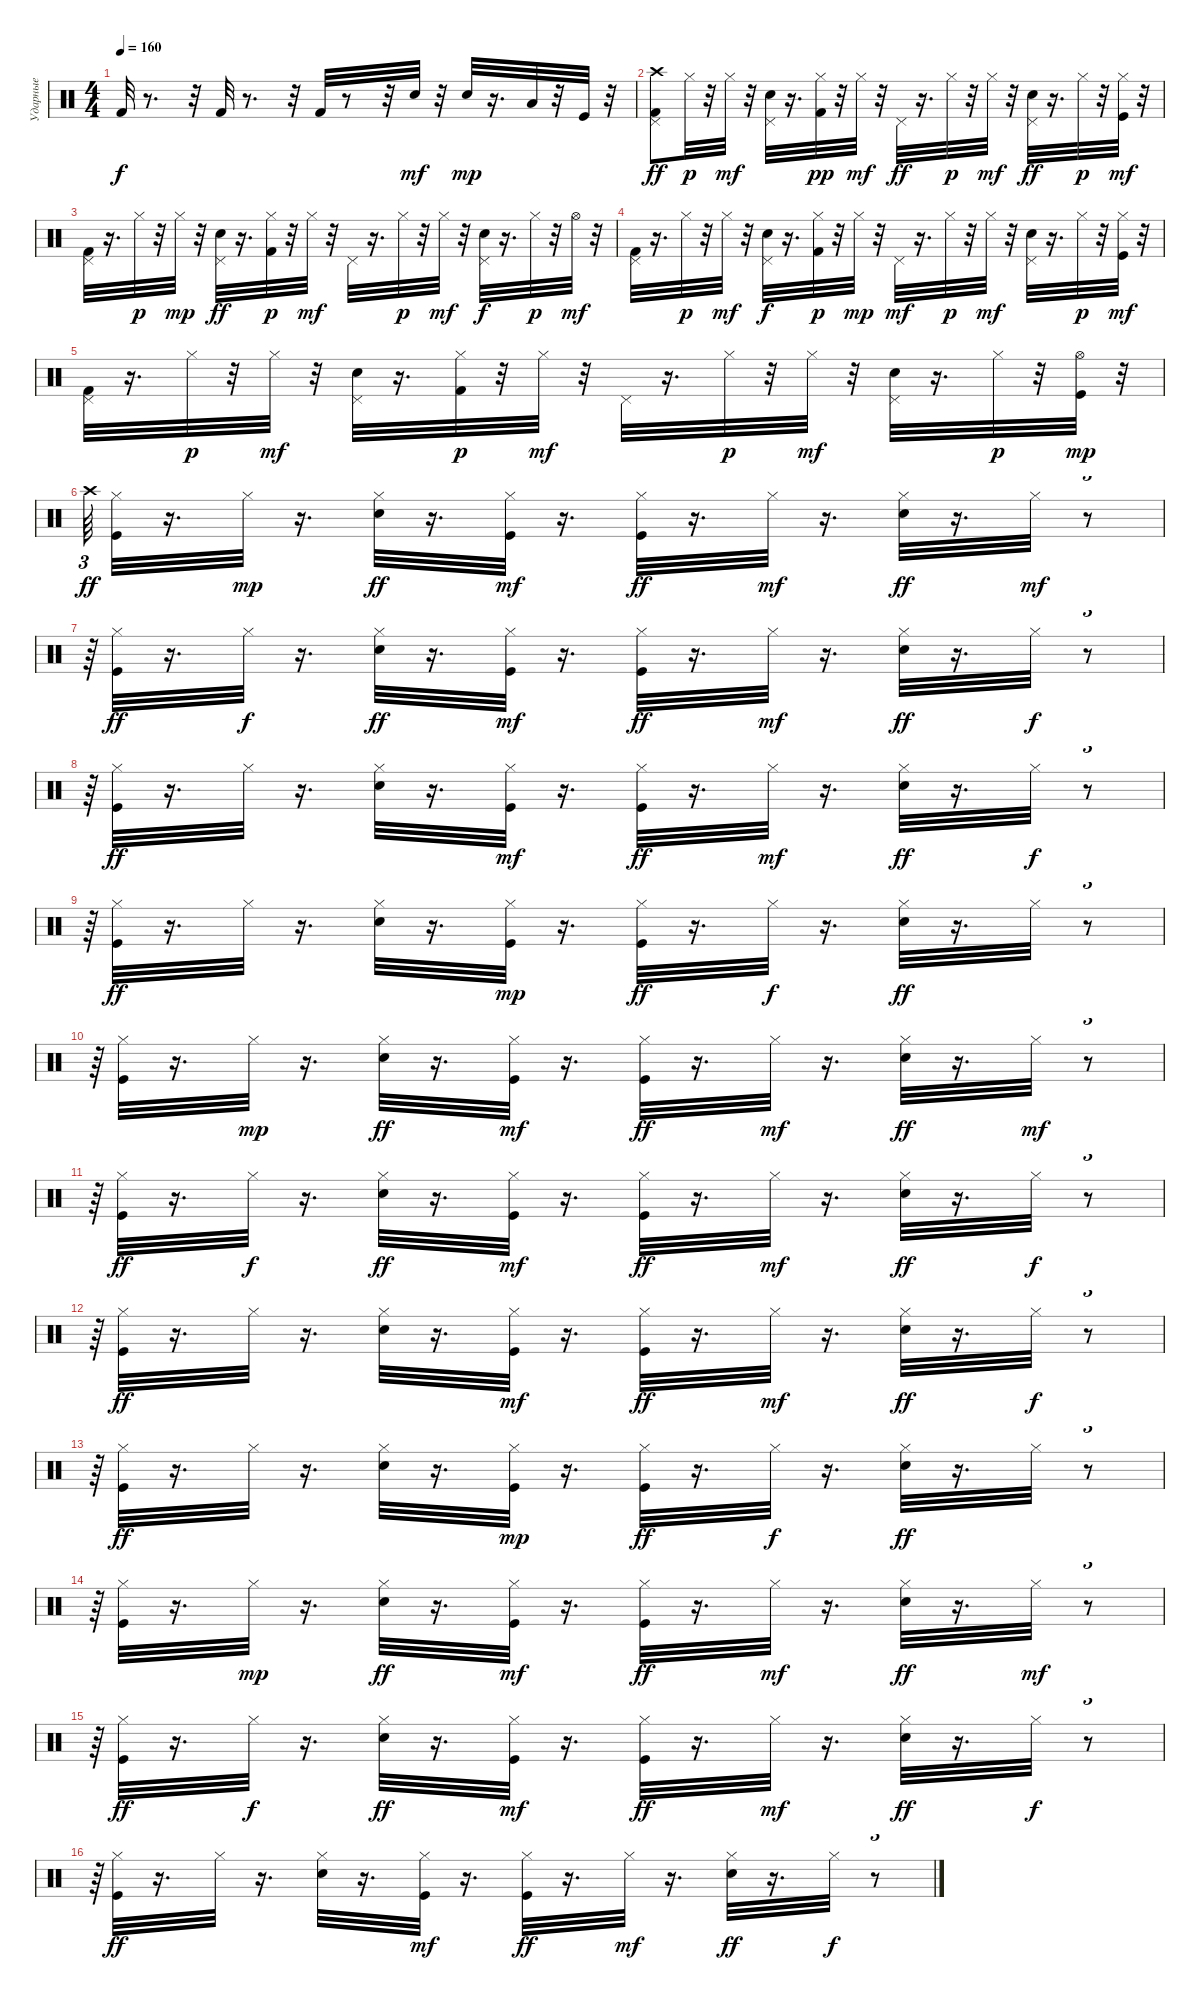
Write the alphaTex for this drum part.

\track ("Ударные" "Ударные") {instrument percussion}
\staff {score}
\articulation defaults
\ts (4 4)
\tempo 160
\clef neutral
\ks c "Kick (hit) 2".32{dy f}
r.8{d} r.32 "Kick (hit) 2".32 r.8{d} r.32 "Kick (hit) 2".32 r.8 r.32 "Snare (hit) 2".32{dy mf} r.32 "Electric Snare (hit)".32{dy mp} r.16{d} "Low Floor Tom (hit)".32 r.32 "Kick (hit)".32 r.32 |
("Kick (hit) 2" "Pedal Hi-Hat (hit)" "Crash high (hit)").8{dy ff} "Hi-Hat (closed)".32{dy p} r.32 "Hi-Hat (closed)".32{dy mf} r.32 ("Electric Snare (hit)" "Pedal Hi-Hat (hit)").32 r.16{d} ("Kick (hit) 2" "Hi-Hat (closed)").32{dy pp} r.32 "Hi-Hat (closed)".32{dy mf} r.32 "Pedal Hi-Hat (hit)".32{dy ff} r.16{d} "Hi-Hat (closed)".32{dy p} r.32 "Hi-Hat (closed)".32{dy mf} r.32 ("Electric Snare (hit)" "Pedal Hi-Hat (hit)").32{dy ff} r.16{d} "Hi-Hat (closed)".32{dy p} r.32 ("Kick (hit)" "Hi-Hat (closed)").32{dy mf} r.32 |
("Kick (hit) 2" "Pedal Hi-Hat (hit)").32 r.16{d} "Hi-Hat (closed)".32{dy p} r.32 "Hi-Hat (closed)".32{dy mp} r.32 ("Electric Snare (hit)" "Pedal Hi-Hat (hit)").32{dy ff} r.16{d} ("Kick (hit) 2" "Hi-Hat (closed)").32{dy p} r.32 "Hi-Hat (closed)".32{dy mf} r.32 "Pedal Hi-Hat (hit)".32 r.16{d} "Hi-Hat (closed)".32{dy p} r.32 "Hi-Hat (closed)".32{dy mf} r.32 ("Electric Snare (hit)" "Pedal Hi-Hat (hit)").32{dy f} r.16{d} "Hi-Hat (closed)".32{dy p} r.32 "Hi-Hat (open)".32{dy mf} r.32 |
("Kick (hit) 2" "Pedal Hi-Hat (hit)").32 r.16{d} "Hi-Hat (closed)".32{dy p} r.32 "Hi-Hat (closed)".32{dy mf} r.32 ("Electric Snare (hit)" "Pedal Hi-Hat (hit)").32{dy f} r.16{d} ("Kick (hit) 2" "Hi-Hat (closed)").32{dy p} r.32 "Hi-Hat (closed)".32{dy mp} r.32 "Pedal Hi-Hat (hit)".32{dy mf} r.16{d} "Hi-Hat (closed)".32{dy p} r.32 "Hi-Hat (closed)".32{dy mf} r.32 ("Electric Snare (hit)" "Pedal Hi-Hat (hit)").32 r.16{d} "Hi-Hat (closed)".32{dy p} r.32 ("Kick (hit)" "Hi-Hat (closed)").32{dy mf} r.32 |
("Kick (hit) 2" "Pedal Hi-Hat (hit)").32 r.16{d} "Hi-Hat (closed)".32{dy p} r.32 "Hi-Hat (closed)".32{dy mf} r.32 ("Electric Snare (hit)" "Pedal Hi-Hat (hit)").32 r.16{d} ("Kick (hit) 2" "Hi-Hat (closed)").32{dy p} r.32 "Hi-Hat (closed)".32{dy mf} r.32 "Pedal Hi-Hat (hit)".32 r.16{d} "Hi-Hat (closed)".32{dy p} r.32 "Hi-Hat (closed)".32{dy mf} r.32 ("Electric Snare (hit)" "Pedal Hi-Hat (hit)").32 r.16{d} "Hi-Hat (closed)".32{dy p} r.32 ("Kick (hit)" "Hi-Hat (open)").32{dy mp} r.32 |
"Crash high (hit)".64{tu (3 2) dy ff} ("Kick (hit)" "Hi-Hat (closed)").32 r.16{d} "Hi-Hat (closed)".32{dy mp} r.16{d} ("Hi-Hat (closed)" "Electric Snare (hit)").32{dy ff} r.16{d} ("Kick (hit)" "Hi-Hat (closed)").32{dy mf} r.16{d} ("Kick (hit)" "Hi-Hat (closed)").32{dy ff} r.16{d} "Hi-Hat (closed)".32{dy mf} r.16{d} ("Hi-Hat (closed)" "Electric Snare (hit)").32{dy ff} r.16{d} "Hi-Hat (closed)".32{dy mf} r.8{tu (3 2)} |
r.64{tu (3 2)} ("Kick (hit)" "Hi-Hat (closed)").32{dy ff} r.16{d} "Hi-Hat (closed)".32{dy f} r.16{d} ("Hi-Hat (closed)" "Electric Snare (hit)").32{dy ff} r.16{d} ("Kick (hit)" "Hi-Hat (closed)").32{dy mf} r.16{d} ("Kick (hit)" "Hi-Hat (closed)").32{dy ff} r.16{d} "Hi-Hat (closed)".32{dy mf} r.16{d} ("Hi-Hat (closed)" "Electric Snare (hit)").32{dy ff} r.16{d} "Hi-Hat (closed)".32{dy f} r.8{tu (3 2)} |
r.64{tu (3 2)} ("Kick (hit)" "Hi-Hat (closed)").32{dy ff} r.16{d} "Hi-Hat (closed)".32 r.16{d} ("Hi-Hat (closed)" "Electric Snare (hit)").32 r.16{d} ("Kick (hit)" "Hi-Hat (closed)").32{dy mf} r.16{d} ("Kick (hit)" "Hi-Hat (closed)").32{dy ff} r.16{d} "Hi-Hat (closed)".32{dy mf} r.16{d} ("Hi-Hat (closed)" "Electric Snare (hit)").32{dy ff} r.16{d} "Hi-Hat (closed)".32{dy f} r.8{tu (3 2)} |
r.64{tu (3 2)} ("Kick (hit)" "Hi-Hat (closed)").32{dy ff} r.16{d} "Hi-Hat (closed)".32 r.16{d} ("Hi-Hat (closed)" "Electric Snare (hit)").32 r.16{d} ("Kick (hit)" "Hi-Hat (closed)").32{dy mp} r.16{d} ("Kick (hit)" "Hi-Hat (closed)").32{dy ff} r.16{d} "Hi-Hat (closed)".32{dy f} r.16{d} ("Hi-Hat (closed)" "Electric Snare (hit)").32{dy ff} r.16{d} "Hi-Hat (closed)".32 r.8{tu (3 2)} |
r.64{tu (3 2)} ("Kick (hit)" "Hi-Hat (closed)").32 r.16{d} "Hi-Hat (closed)".32{dy mp} r.16{d} ("Hi-Hat (closed)" "Electric Snare (hit)").32{dy ff} r.16{d} ("Kick (hit)" "Hi-Hat (closed)").32{dy mf} r.16{d} ("Kick (hit)" "Hi-Hat (closed)").32{dy ff} r.16{d} "Hi-Hat (closed)".32{dy mf} r.16{d} ("Hi-Hat (closed)" "Electric Snare (hit)").32{dy ff} r.16{d} "Hi-Hat (closed)".32{dy mf} r.8{tu (3 2)} |
r.64{tu (3 2)} ("Kick (hit)" "Hi-Hat (closed)").32{dy ff} r.16{d} "Hi-Hat (closed)".32{dy f} r.16{d} ("Hi-Hat (closed)" "Electric Snare (hit)").32{dy ff} r.16{d} ("Kick (hit)" "Hi-Hat (closed)").32{dy mf} r.16{d} ("Kick (hit)" "Hi-Hat (closed)").32{dy ff} r.16{d} "Hi-Hat (closed)".32{dy mf} r.16{d} ("Hi-Hat (closed)" "Electric Snare (hit)").32{dy ff} r.16{d} "Hi-Hat (closed)".32{dy f} r.8{tu (3 2)} |
r.64{tu (3 2)} ("Kick (hit)" "Hi-Hat (closed)").32{dy ff} r.16{d} "Hi-Hat (closed)".32 r.16{d} ("Hi-Hat (closed)" "Electric Snare (hit)").32 r.16{d} ("Kick (hit)" "Hi-Hat (closed)").32{dy mf} r.16{d} ("Kick (hit)" "Hi-Hat (closed)").32{dy ff} r.16{d} "Hi-Hat (closed)".32{dy mf} r.16{d} ("Hi-Hat (closed)" "Electric Snare (hit)").32{dy ff} r.16{d} "Hi-Hat (closed)".32{dy f} r.8{tu (3 2)} |
r.64{tu (3 2)} ("Kick (hit)" "Hi-Hat (closed)").32{dy ff} r.16{d} "Hi-Hat (closed)".32 r.16{d} ("Hi-Hat (closed)" "Electric Snare (hit)").32 r.16{d} ("Kick (hit)" "Hi-Hat (closed)").32{dy mp} r.16{d} ("Kick (hit)" "Hi-Hat (closed)").32{dy ff} r.16{d} "Hi-Hat (closed)".32{dy f} r.16{d} ("Hi-Hat (closed)" "Electric Snare (hit)").32{dy ff} r.16{d} "Hi-Hat (closed)".32 r.8{tu (3 2)} |
r.64{tu (3 2)} ("Kick (hit)" "Hi-Hat (closed)").32 r.16{d} "Hi-Hat (closed)".32{dy mp} r.16{d} ("Hi-Hat (closed)" "Electric Snare (hit)").32{dy ff} r.16{d} ("Kick (hit)" "Hi-Hat (closed)").32{dy mf} r.16{d} ("Kick (hit)" "Hi-Hat (closed)").32{dy ff} r.16{d} "Hi-Hat (closed)".32{dy mf} r.16{d} ("Hi-Hat (closed)" "Electric Snare (hit)").32{dy ff} r.16{d} "Hi-Hat (closed)".32{dy mf} r.8{tu (3 2)} |
r.64{tu (3 2)} ("Kick (hit)" "Hi-Hat (closed)").32{dy ff} r.16{d} "Hi-Hat (closed)".32{dy f} r.16{d} ("Hi-Hat (closed)" "Electric Snare (hit)").32{dy ff} r.16{d} ("Kick (hit)" "Hi-Hat (closed)").32{dy mf} r.16{d} ("Kick (hit)" "Hi-Hat (closed)").32{dy ff} r.16{d} "Hi-Hat (closed)".32{dy mf} r.16{d} ("Hi-Hat (closed)" "Electric Snare (hit)").32{dy ff} r.16{d} "Hi-Hat (closed)".32{dy f} r.8{tu (3 2)} |
r.64{tu (3 2)} ("Kick (hit)" "Hi-Hat (closed)").32{dy ff} r.16{d} "Hi-Hat (closed)".32 r.16{d} ("Hi-Hat (closed)" "Electric Snare (hit)").32 r.16{d} ("Kick (hit)" "Hi-Hat (closed)").32{dy mf} r.16{d} ("Kick (hit)" "Hi-Hat (closed)").32{dy ff} r.16{d} "Hi-Hat (closed)".32{dy mf} r.16{d} ("Hi-Hat (closed)" "Electric Snare (hit)").32{dy ff} r.16{d} "Hi-Hat (closed)".32{dy f} r.8{tu (3 2)}
